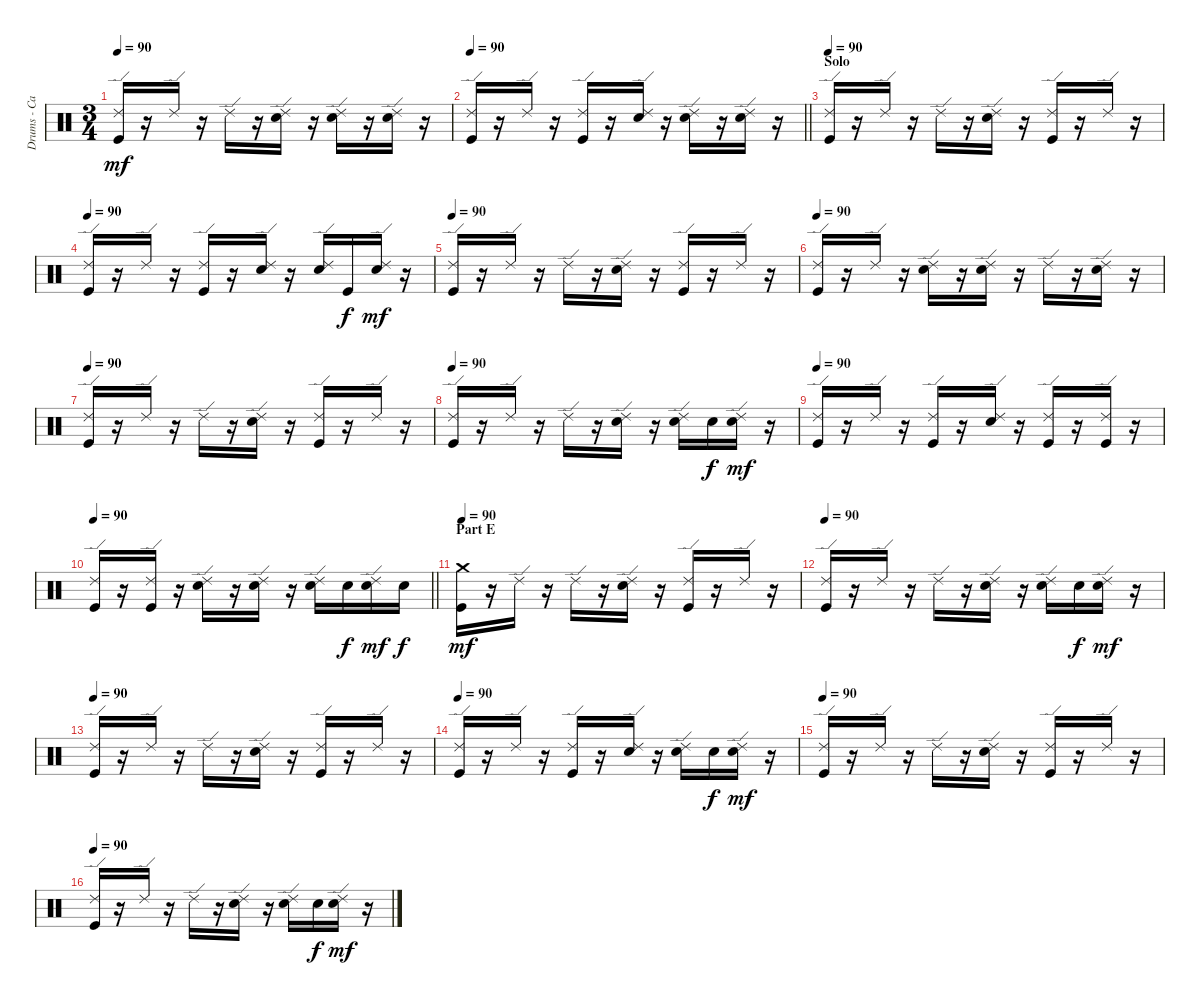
\track ("Drums - Carla Azar" "Drums - Ca") {instrument percussion}
\staff {score}
\articulation defaults
\ts (3 4)
\tempo 90
\clef neutral
\ks c
("Ride (edge) 2" "Kick (hit)").16{dy mf} r.16 "Ride (edge) 2".16 r.16 "Ride (edge) 2".16 r.16 ("Ride (edge) 2" "Snare (hit) 2").16 r.16 ("Ride (edge) 2" "Snare (hit) 2").16 r.16 ("Ride (edge) 2" "Snare (hit) 2").16 r.16 |
\tempo 90
\barLineRight lightlight
("Ride (edge) 2" "Kick (hit)").16 r.16 "Ride (edge) 2".16 r.16 ("Ride (edge) 2" "Kick (hit)").16 r.16 ("Ride (edge) 2" "Snare (hit) 2").16 r.16 ("Ride (edge) 2" "Snare (hit) 2").16 r.16 ("Ride (edge) 2" "Snare (hit) 2").16 r.16 |
\section ("" "Solo")
\tempo 90
("Ride (edge) 2" "Kick (hit)").16 r.16 "Ride (edge) 2".16 r.16 "Ride (edge) 2".16 r.16 ("Ride (edge) 2" "Snare (hit) 2").16 r.16 ("Ride (edge) 2" "Kick (hit)").16 r.16 "Ride (edge) 2".16 r.16 |
\tempo 90
("Ride (edge) 2" "Kick (hit)").16 r.16 "Ride (edge) 2".16 r.16 ("Ride (edge) 2" "Kick (hit)").16 r.16 ("Ride (edge) 2" "Snare (hit) 2").16 r.16 ("Ride (edge) 2" "Snare (hit) 2").16 "Kick (hit)".16{dy f} ("Ride (edge) 2" "Snare (hit) 2").16{dy mf} r.16 |
\tempo 90
("Ride (edge) 2" "Kick (hit)").16 r.16 "Ride (edge) 2".16 r.16 "Ride (edge) 2".16 r.16 ("Ride (edge) 2" "Snare (hit) 2").16 r.16 ("Ride (edge) 2" "Kick (hit)").16 r.16 "Ride (edge) 2".16 r.16 |
\tempo 90
("Ride (edge) 2" "Kick (hit)").16 r.16 "Ride (edge) 2".16 r.16 ("Ride (edge) 2" "Snare (hit) 2").16 r.16 ("Ride (edge) 2" "Snare (hit) 2").16 r.16 "Ride (edge) 2".16 r.16 ("Ride (edge) 2" "Snare (hit) 2").16 r.16 |
\tempo 90
("Ride (edge) 2" "Kick (hit)").16 r.16 "Ride (edge) 2".16 r.16 "Ride (edge) 2".16 r.16 ("Ride (edge) 2" "Snare (hit) 2").16 r.16 ("Ride (edge) 2" "Kick (hit)").16 r.16 "Ride (edge) 2".16 r.16 |
\tempo 90
("Ride (edge) 2" "Kick (hit)").16 r.16 "Ride (edge) 2".16 r.16 "Ride (edge) 2".16 r.16 ("Ride (edge) 2" "Snare (hit) 2").16 r.16 ("Ride (edge) 2" "Snare (hit) 2").16 "Snare (hit) 2".16{dy f} ("Ride (edge) 2" "Snare (hit) 2").16{dy mf} r.16 |
\tempo 90
("Ride (edge) 2" "Kick (hit)").16 r.16 "Ride (edge) 2".16 r.16 ("Ride (edge) 2" "Kick (hit)").16 r.16 ("Ride (edge) 2" "Snare (hit) 2").16 r.16 ("Ride (edge) 2" "Kick (hit)").16 r.16 ("Ride (edge) 2" "Kick (hit)").16 r.16 |
\tempo 90
\barLineRight lightlight
("Ride (edge) 2" "Kick (hit)").16 r.16 ("Ride (edge) 2" "Kick (hit)").16 r.16 ("Ride (edge) 2" "Snare (hit) 2").16 r.16 ("Ride (edge) 2" "Snare (hit) 2").16 r.16 ("Ride (edge) 2" "Snare (hit) 2").16 "Snare (hit) 2".16{dy f} ("Ride (edge) 2" "Snare (hit) 2").16{dy mf} "Snare (hit) 2".16{dy f} |
\section ("" "Part E")
\tempo 90
("Crash medium (hit)" "Kick (hit)").16{dy mf} r.16 "Ride (edge) 2".16 r.16 "Ride (edge) 2".16 r.16 ("Ride (edge) 2" "Snare (hit) 2").16 r.16 ("Ride (edge) 2" "Kick (hit)").16 r.16 "Ride (edge) 2".16 r.16 |
\tempo 90
("Ride (edge) 2" "Kick (hit)").16 r.16 "Ride (edge) 2".16 r.16 "Ride (edge) 2".16 r.16 ("Ride (edge) 2" "Snare (hit) 2").16 r.16 ("Ride (edge) 2" "Snare (hit) 2").16 "Snare (hit) 2".16{dy f} ("Ride (edge) 2" "Snare (hit) 2").16{dy mf} r.16 |
\tempo 90
("Ride (edge) 2" "Kick (hit)").16 r.16 "Ride (edge) 2".16 r.16 "Ride (edge) 2".16 r.16 ("Ride (edge) 2" "Snare (hit) 2").16 r.16 ("Ride (edge) 2" "Kick (hit)").16 r.16 "Ride (edge) 2".16 r.16 |
\tempo 90
("Ride (edge) 2" "Kick (hit)").16 r.16 "Ride (edge) 2".16 r.16 ("Ride (edge) 2" "Kick (hit)").16 r.16 ("Ride (edge) 2" "Snare (hit) 2").16 r.16 ("Ride (edge) 2" "Snare (hit) 2").16 "Snare (hit) 2".16{dy f} ("Ride (edge) 2" "Snare (hit) 2").16{dy mf} r.16 |
\tempo 90
("Ride (edge) 2" "Kick (hit)").16 r.16 "Ride (edge) 2".16 r.16 "Ride (edge) 2".16 r.16 ("Ride (edge) 2" "Snare (hit) 2").16 r.16 ("Ride (edge) 2" "Kick (hit)").16 r.16 "Ride (edge) 2".16 r.16 |
\tempo 90
("Ride (edge) 2" "Kick (hit)").16 r.16 "Ride (edge) 2".16 r.16 "Ride (edge) 2".16 r.16 ("Ride (edge) 2" "Snare (hit) 2").16 r.16 ("Ride (edge) 2" "Snare (hit) 2").16 "Snare (hit) 2".16{dy f} ("Ride (edge) 2" "Snare (hit) 2").16{dy mf} r.16
